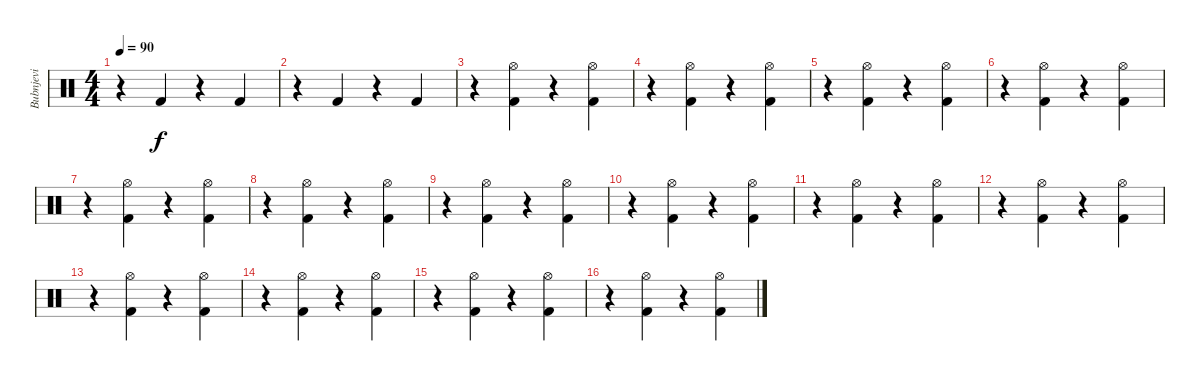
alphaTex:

\track ("Bubnjevi" "Bubnjevi") {instrument percussion}
\staff {score}
\articulation defaults
\ts (4 4)
\tempo 90
\clef neutral
\ks c
r.4{dy f} "Kick (hit) 2".4 r.4 "Kick (hit) 2".4 |
r.4 "Kick (hit) 2".4 r.4 "Kick (hit) 2".4 |
r.4 ("Kick (hit) 2" "Hi-Hat (open)").4 r.4 ("Kick (hit) 2" "Hi-Hat (open)").4 |
r.4 ("Kick (hit) 2" "Hi-Hat (open)").4 r.4 ("Kick (hit) 2" "Hi-Hat (open)").4 |
r.4 ("Kick (hit) 2" "Hi-Hat (open)").4 r.4 ("Kick (hit) 2" "Hi-Hat (open)").4 |
r.4 ("Kick (hit) 2" "Hi-Hat (open)").4 r.4 ("Kick (hit) 2" "Hi-Hat (open)").4 |
r.4 ("Kick (hit) 2" "Hi-Hat (open)").4 r.4 ("Kick (hit) 2" "Hi-Hat (open)").4 |
r.4 ("Kick (hit) 2" "Hi-Hat (open)").4 r.4 ("Kick (hit) 2" "Hi-Hat (open)").4 |
r.4 ("Kick (hit) 2" "Hi-Hat (open)").4 r.4 ("Kick (hit) 2" "Hi-Hat (open)").4 |
r.4 ("Kick (hit) 2" "Hi-Hat (open)").4 r.4 ("Kick (hit) 2" "Hi-Hat (open)").4 |
r.4 ("Kick (hit) 2" "Hi-Hat (open)").4 r.4 ("Kick (hit) 2" "Hi-Hat (open)").4 |
r.4 ("Kick (hit) 2" "Hi-Hat (open)").4 r.4 ("Kick (hit) 2" "Hi-Hat (open)").4 |
r.4 ("Kick (hit) 2" "Hi-Hat (open)").4 r.4 ("Kick (hit) 2" "Hi-Hat (open)").4 |
r.4 ("Kick (hit) 2" "Hi-Hat (open)").4 r.4 ("Kick (hit) 2" "Hi-Hat (open)").4 |
r.4 ("Kick (hit) 2" "Hi-Hat (open)").4 r.4 ("Kick (hit) 2" "Hi-Hat (open)").4 |
r.4 ("Kick (hit) 2" "Hi-Hat (open)").4 r.4 ("Kick (hit) 2" "Hi-Hat (open)").4
